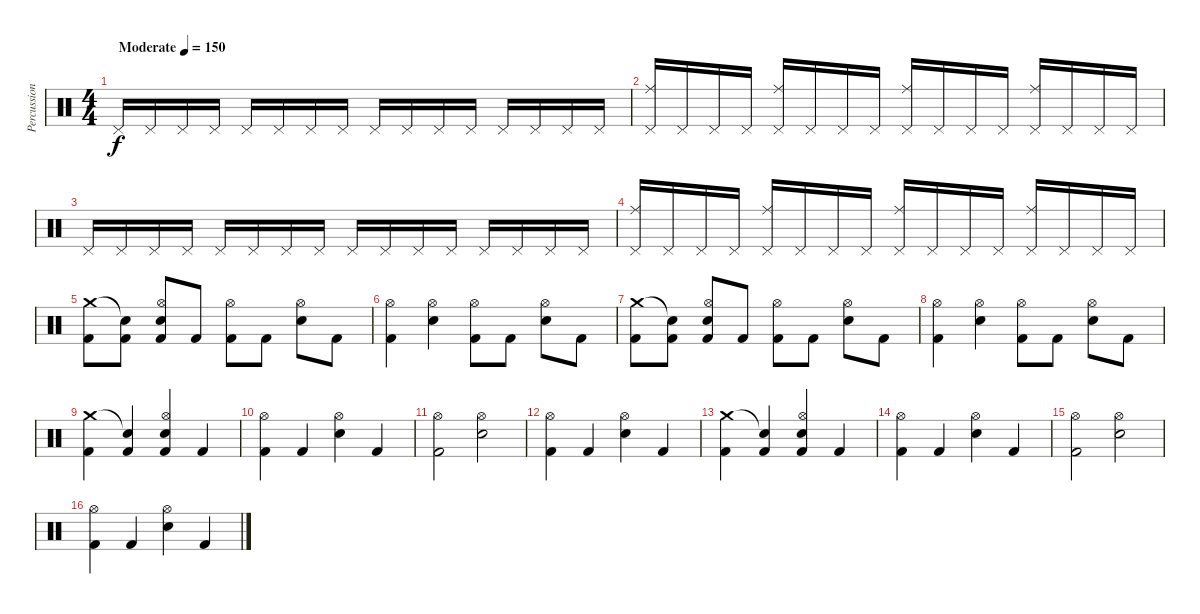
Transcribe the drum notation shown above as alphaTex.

\track ("Percussion" "Percussion") {instrument percussion}
\staff {score}
\articulation defaults
\ts (4 4)
\tempo (150 "Moderate")
\clef neutral
\ks c "Pedal Hi-Hat (hit)".16{dy f} "Pedal Hi-Hat (hit)".16 "Pedal Hi-Hat (hit)".16 "Pedal Hi-Hat (hit)".16 "Pedal Hi-Hat (hit)".16 "Pedal Hi-Hat (hit)".16 "Pedal Hi-Hat (hit)".16 "Pedal Hi-Hat (hit)".16 "Pedal Hi-Hat (hit)".16 "Pedal Hi-Hat (hit)".16 "Pedal Hi-Hat (hit)".16 "Pedal Hi-Hat (hit)".16 "Pedal Hi-Hat (hit)".16 "Pedal Hi-Hat (hit)".16 "Pedal Hi-Hat (hit)".16 "Pedal Hi-Hat (hit)".16
|
("Pedal Hi-Hat (hit)" "Ride (middle)").16 "Pedal Hi-Hat (hit)".16 "Pedal Hi-Hat (hit)".16 "Pedal Hi-Hat (hit)".16 ("Pedal Hi-Hat (hit)" "Ride (middle)").16 "Pedal Hi-Hat (hit)".16 "Pedal Hi-Hat (hit)".16 "Pedal Hi-Hat (hit)".16 ("Pedal Hi-Hat (hit)" "Ride (middle)").16 "Pedal Hi-Hat (hit)".16 "Pedal Hi-Hat (hit)".16 "Pedal Hi-Hat (hit)".16 ("Pedal Hi-Hat (hit)" "Ride (middle)").16 "Pedal Hi-Hat (hit)".16 "Pedal Hi-Hat (hit)".16 "Pedal Hi-Hat (hit)".16 |
"Pedal Hi-Hat (hit)".16 "Pedal Hi-Hat (hit)".16 "Pedal Hi-Hat (hit)".16 "Pedal Hi-Hat (hit)".16 "Pedal Hi-Hat (hit)".16 "Pedal Hi-Hat (hit)".16 "Pedal Hi-Hat (hit)".16 "Pedal Hi-Hat (hit)".16 "Pedal Hi-Hat (hit)".16 "Pedal Hi-Hat (hit)".16 "Pedal Hi-Hat (hit)".16 "Pedal Hi-Hat (hit)".16 "Pedal Hi-Hat (hit)".16 "Pedal Hi-Hat (hit)".16 "Pedal Hi-Hat (hit)".16 "Pedal Hi-Hat (hit)".16 |
("Pedal Hi-Hat (hit)" "Ride (middle)").16 "Pedal Hi-Hat (hit)".16 "Pedal Hi-Hat (hit)".16 "Pedal Hi-Hat (hit)".16 ("Pedal Hi-Hat (hit)" "Ride (middle)").16 "Pedal Hi-Hat (hit)".16 "Pedal Hi-Hat (hit)".16 "Pedal Hi-Hat (hit)".16 ("Pedal Hi-Hat (hit)" "Ride (middle)").16 "Pedal Hi-Hat (hit)".16 "Pedal Hi-Hat (hit)".16 "Pedal Hi-Hat (hit)".16 ("Pedal Hi-Hat (hit)" "Ride (middle)").16 "Pedal Hi-Hat (hit)".16 "Pedal Hi-Hat (hit)".16 "Pedal Hi-Hat (hit)".16 |
("Crash medium (hit)" "Kick (hit) 2").8 ("Snare (hit)"{t} "Kick (hit) 2").8 ("Hi-Hat (open)" "Electric Snare (hit)" "Kick (hit) 2").8 "Kick (hit) 2".8 ("Hi-Hat (open)" "Kick (hit) 2").8 "Kick (hit) 2".8 ("Hi-Hat (open)" "Electric Snare (hit)").8 "Kick (hit) 2".8 |
("Hi-Hat (open)" "Kick (hit) 2").4 ("Hi-Hat (open)" "Electric Snare (hit)").4 ("Hi-Hat (open)" "Kick (hit) 2").8 "Kick (hit) 2".8 ("Hi-Hat (open)" "Electric Snare (hit)").8 "Kick (hit) 2".8 |
("Crash medium (hit)" "Kick (hit) 2").8 ("Snare (hit)"{t} "Kick (hit) 2").8 ("Hi-Hat (open)" "Electric Snare (hit)" "Kick (hit) 2").8 "Kick (hit) 2".8 ("Hi-Hat (open)" "Kick (hit) 2").8 "Kick (hit) 2".8 ("Hi-Hat (open)" "Electric Snare (hit)").8 "Kick (hit) 2".8 |
("Hi-Hat (open)" "Kick (hit) 2").4 ("Hi-Hat (open)" "Electric Snare (hit)").4 ("Hi-Hat (open)" "Kick (hit) 2").8 "Kick (hit) 2".8 ("Hi-Hat (open)" "Electric Snare (hit)").8 "Kick (hit) 2".8 |
("Crash medium (hit)" "Kick (hit) 2").4 ("Snare (hit)"{t} "Kick (hit) 2").4 ("Hi-Hat (open)" "Electric Snare (hit)" "Kick (hit) 2").4 "Kick (hit) 2".4 |
("Hi-Hat (open)" "Kick (hit) 2").4 "Kick (hit) 2".4 ("Hi-Hat (open)" "Electric Snare (hit)").4 "Kick (hit) 2".4 |
("Hi-Hat (open)" "Kick (hit) 2").2 ("Hi-Hat (open)" "Electric Snare (hit)").2 |
("Hi-Hat (open)" "Kick (hit) 2").4 "Kick (hit) 2".4 ("Hi-Hat (open)" "Electric Snare (hit)").4 "Kick (hit) 2".4 |
("Crash medium (hit)" "Kick (hit) 2").4 ("Snare (hit)"{t} "Kick (hit) 2").4 ("Hi-Hat (open)" "Electric Snare (hit)" "Kick (hit) 2").4 "Kick (hit) 2".4 |
("Hi-Hat (open)" "Kick (hit) 2").4 "Kick (hit) 2".4 ("Hi-Hat (open)" "Electric Snare (hit)").4 "Kick (hit) 2".4 |
("Hi-Hat (open)" "Kick (hit) 2").2 ("Hi-Hat (open)" "Electric Snare (hit)").2 |
("Hi-Hat (open)" "Kick (hit) 2").4 "Kick (hit) 2".4 ("Hi-Hat (open)" "Electric Snare (hit)").4 "Kick (hit) 2".4
